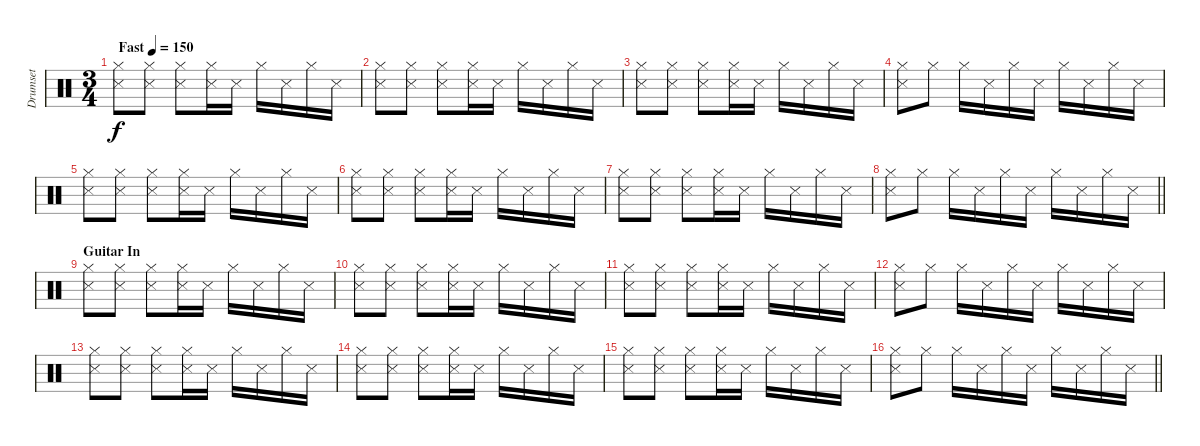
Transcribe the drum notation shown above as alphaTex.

\track ("Drumset" "Drumset") {instrument percussion}
\staff {score}
\articulation defaults
\ts (3 4)
\tempo (150 "Fast")
\clef neutral
\ks c
("Hi-Hat (closed)" "Snare (side stick) 3").8{dy f} ("Hi-Hat (closed)" "Snare (side stick) 3").8 ("Hi-Hat (closed)" "Snare (side stick) 3").8 ("Hi-Hat (closed)" "Snare (side stick) 3").16 "Snare (side stick) 3".16 "Hi-Hat (closed)".16 "Snare (side stick) 3".16 "Hi-Hat (closed)".16 "Snare (side stick) 3".16 |
("Hi-Hat (closed)" "Snare (side stick) 3").8 ("Hi-Hat (closed)" "Snare (side stick) 3").8 ("Hi-Hat (closed)" "Snare (side stick) 3").8 ("Hi-Hat (closed)" "Snare (side stick) 3").16 "Snare (side stick) 3".16 "Hi-Hat (closed)".16 "Snare (side stick) 3".16 "Hi-Hat (closed)".16 "Snare (side stick) 3".16 |
("Hi-Hat (closed)" "Snare (side stick) 3").8 ("Hi-Hat (closed)" "Snare (side stick) 3").8 ("Hi-Hat (closed)" "Snare (side stick) 3").8 ("Hi-Hat (closed)" "Snare (side stick) 3").16 "Snare (side stick) 3".16 "Hi-Hat (closed)".16 "Snare (side stick) 3".16 "Hi-Hat (closed)".16 "Snare (side stick) 3".16 |
("Hi-Hat (closed)" "Snare (side stick) 3").8 "Hi-Hat (closed)".8 "Hi-Hat (closed)".16 "Snare (side stick) 3".16 "Hi-Hat (closed)".16 "Snare (side stick) 3".16 "Hi-Hat (closed)".16 "Snare (side stick) 3".16 "Hi-Hat (closed)".16 "Snare (side stick) 3".16 |
("Hi-Hat (closed)" "Snare (side stick) 3").8 ("Hi-Hat (closed)" "Snare (side stick) 3").8 ("Hi-Hat (closed)" "Snare (side stick) 3").8 ("Hi-Hat (closed)" "Snare (side stick) 3").16 "Snare (side stick) 3".16 "Hi-Hat (closed)".16 "Snare (side stick) 3".16 "Hi-Hat (closed)".16 "Snare (side stick) 3".16 |
("Hi-Hat (closed)" "Snare (side stick) 3").8 ("Hi-Hat (closed)" "Snare (side stick) 3").8 ("Hi-Hat (closed)" "Snare (side stick) 3").8 ("Hi-Hat (closed)" "Snare (side stick) 3").16 "Snare (side stick) 3".16 "Hi-Hat (closed)".16 "Snare (side stick) 3".16 "Hi-Hat (closed)".16 "Snare (side stick) 3".16 |
("Hi-Hat (closed)" "Snare (side stick) 3").8 ("Hi-Hat (closed)" "Snare (side stick) 3").8 ("Hi-Hat (closed)" "Snare (side stick) 3").8 ("Hi-Hat (closed)" "Snare (side stick) 3").16 "Snare (side stick) 3".16 "Hi-Hat (closed)".16 "Snare (side stick) 3".16 "Hi-Hat (closed)".16 "Snare (side stick) 3".16 |
\barLineRight lightlight
("Hi-Hat (closed)" "Snare (side stick) 3").8 "Hi-Hat (closed)".8 "Hi-Hat (closed)".16 "Snare (side stick) 3".16 "Hi-Hat (closed)".16 "Snare (side stick) 3".16 "Hi-Hat (closed)".16 "Snare (side stick) 3".16 "Hi-Hat (closed)".16 "Snare (side stick) 3".16 |
\section ("" "Guitar In")
("Hi-Hat (closed)" "Snare (side stick) 3").8 ("Hi-Hat (closed)" "Snare (side stick) 3").8 ("Hi-Hat (closed)" "Snare (side stick) 3").8 ("Hi-Hat (closed)" "Snare (side stick) 3").16 "Snare (side stick) 3".16 "Hi-Hat (closed)".16 "Snare (side stick) 3".16 "Hi-Hat (closed)".16 "Snare (side stick) 3".16 |
("Hi-Hat (closed)" "Snare (side stick) 3").8 ("Hi-Hat (closed)" "Snare (side stick) 3").8 ("Hi-Hat (closed)" "Snare (side stick) 3").8 ("Hi-Hat (closed)" "Snare (side stick) 3").16 "Snare (side stick) 3".16 "Hi-Hat (closed)".16 "Snare (side stick) 3".16 "Hi-Hat (closed)".16 "Snare (side stick) 3".16 |
("Hi-Hat (closed)" "Snare (side stick) 3").8 ("Hi-Hat (closed)" "Snare (side stick) 3").8 ("Hi-Hat (closed)" "Snare (side stick) 3").8 ("Hi-Hat (closed)" "Snare (side stick) 3").16 "Snare (side stick) 3".16 "Hi-Hat (closed)".16 "Snare (side stick) 3".16 "Hi-Hat (closed)".16 "Snare (side stick) 3".16 |
("Hi-Hat (closed)" "Snare (side stick) 3").8 "Hi-Hat (closed)".8 "Hi-Hat (closed)".16 "Snare (side stick) 3".16 "Hi-Hat (closed)".16 "Snare (side stick) 3".16 "Hi-Hat (closed)".16 "Snare (side stick) 3".16 "Hi-Hat (closed)".16 "Snare (side stick) 3".16 |
("Hi-Hat (closed)" "Snare (side stick) 3").8 ("Hi-Hat (closed)" "Snare (side stick) 3").8 ("Hi-Hat (closed)" "Snare (side stick) 3").8 ("Hi-Hat (closed)" "Snare (side stick) 3").16 "Snare (side stick) 3".16 "Hi-Hat (closed)".16 "Snare (side stick) 3".16 "Hi-Hat (closed)".16 "Snare (side stick) 3".16 |
("Hi-Hat (closed)" "Snare (side stick) 3").8 ("Hi-Hat (closed)" "Snare (side stick) 3").8 ("Hi-Hat (closed)" "Snare (side stick) 3").8 ("Hi-Hat (closed)" "Snare (side stick) 3").16 "Snare (side stick) 3".16 "Hi-Hat (closed)".16 "Snare (side stick) 3".16 "Hi-Hat (closed)".16 "Snare (side stick) 3".16 |
("Hi-Hat (closed)" "Snare (side stick) 3").8 ("Hi-Hat (closed)" "Snare (side stick) 3").8 ("Hi-Hat (closed)" "Snare (side stick) 3").8 ("Hi-Hat (closed)" "Snare (side stick) 3").16 "Snare (side stick) 3".16 "Hi-Hat (closed)".16 "Snare (side stick) 3".16 "Hi-Hat (closed)".16 "Snare (side stick) 3".16 |
\barLineRight lightlight
("Hi-Hat (closed)" "Snare (side stick) 3").8 "Hi-Hat (closed)".8 "Hi-Hat (closed)".16 "Snare (side stick) 3".16 "Hi-Hat (closed)".16 "Snare (side stick) 3".16 "Hi-Hat (closed)".16 "Snare (side stick) 3".16 "Hi-Hat (closed)".16 "Snare (side stick) 3".16
